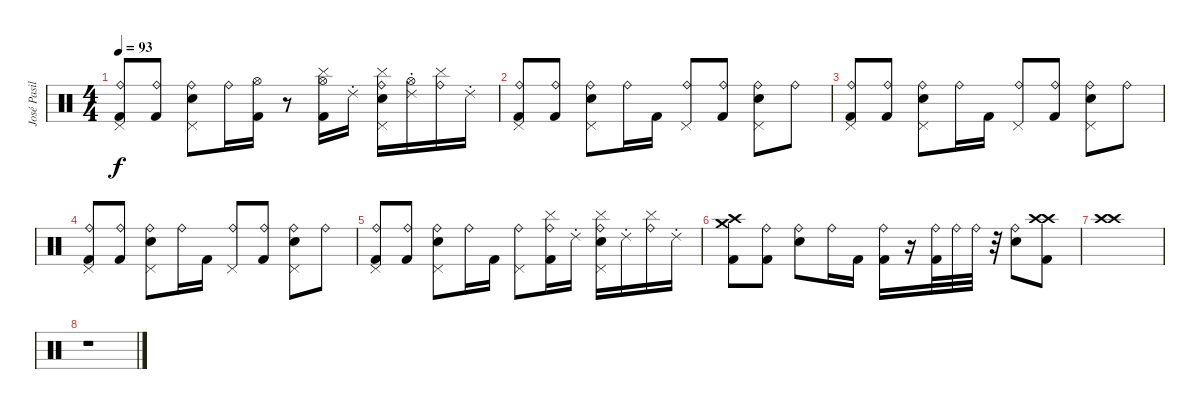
\track ("José Pasillas/DJ Kilmore" "José Pasil") {instrument percussion}
\staff {score}
\articulation defaults
\ts (4 4)
\tempo 93
\clef neutral
\ks c
("Ride (bell)" "Kick (hit) 2" "Pedal Hi-Hat (hit)").8{dy f} ("Ride (bell)" "Kick (hit) 2").8 ("Ride (bell)" "Electric Snare (hit)" "Pedal Hi-Hat (hit)").8 "Ride (bell)".16 ("Hi-Hat (open)" "Kick (hit) 2").16 r.8 ("Hi-Hat (open)" "Cymbal (hit)" "Kick (hit) 2").16 "Ride (choke) 2".16 ("Ride (bell)" "Cymbal (hit)" "Electric Snare (hit)" "Pedal Hi-Hat (hit)").16 ("Hi-Hat (open)" "Ride (choke) 2").16 ("Ride (bell)" "Cymbal (hit)").16 "Ride (choke) 2".16 |
("Ride (bell)" "Kick (hit) 2" "Pedal Hi-Hat (hit)").8 ("Ride (bell)" "Kick (hit) 2").8 ("Ride (bell)" "Electric Snare (hit)" "Pedal Hi-Hat (hit)").8 "Ride (bell)".16 "Kick (hit) 2".16 ("Ride (bell)" "Pedal Hi-Hat (hit)").8 ("Ride (bell)" "Kick (hit) 2").8 ("Ride (bell)" "Electric Snare (hit)" "Pedal Hi-Hat (hit)").8 "Ride (bell)".8 |
("Ride (bell)" "Kick (hit) 2" "Pedal Hi-Hat (hit)").8 ("Ride (bell)" "Kick (hit) 2").8 ("Ride (bell)" "Electric Snare (hit)" "Pedal Hi-Hat (hit)").8 "Ride (bell)".16 "Kick (hit) 2".16 ("Ride (bell)" "Pedal Hi-Hat (hit)").8 ("Ride (bell)" "Kick (hit) 2").8 ("Ride (bell)" "Electric Snare (hit)" "Pedal Hi-Hat (hit)").8 "Ride (bell)".8 |
("Ride (bell)" "Kick (hit) 2" "Pedal Hi-Hat (hit)").8 ("Ride (bell)" "Kick (hit) 2").8 ("Ride (bell)" "Electric Snare (hit)" "Pedal Hi-Hat (hit)").8 "Ride (bell)".16 "Kick (hit) 2".16 ("Ride (bell)" "Pedal Hi-Hat (hit)").8 ("Ride (bell)" "Kick (hit) 2").8 ("Ride (bell)" "Electric Snare (hit)" "Pedal Hi-Hat (hit)").8 "Ride (bell)".8 |
("Ride (bell)" "Kick (hit) 2" "Pedal Hi-Hat (hit)").8 ("Ride (bell)" "Kick (hit) 2").8 ("Ride (bell)" "Electric Snare (hit)" "Pedal Hi-Hat (hit)").8 "Ride (bell)".16 "Kick (hit) 2".16 ("Ride (bell)" "Pedal Hi-Hat (hit)").8 ("Ride (bell)" "Cymbal (hit)" "Kick (hit) 2").16 "Ride (choke) 2".16 ("Ride (bell)" "Cymbal (hit)" "Electric Snare (hit)" "Pedal Hi-Hat (hit)").16 "Ride (choke) 2".16 ("Ride (bell)" "Cymbal (hit)").16 "Ride (choke) 2".16 |
("Crash high (hit)" "Crash medium (hit)" "Kick (hit) 2").8 ("Ride (bell)" "Kick (hit) 2").8 ("Ride (bell)" "Electric Snare (hit)").8 "Ride (bell)".16 "Kick (hit) 2".16 ("Ride (bell)" "Kick (hit) 2").16 r.16 ("Ride (bell)" "Kick (hit) 2").32 "Ride (bell)".32 "Ride (bell)".32 r.32 ("Ride (bell)" "Electric Snare (hit)").8 ("Crash high (hit)" "Crash high (hit)" "Kick (hit) 2").8 |
("Crash high (hit)" "Crash high (hit)").1 |
r.1
